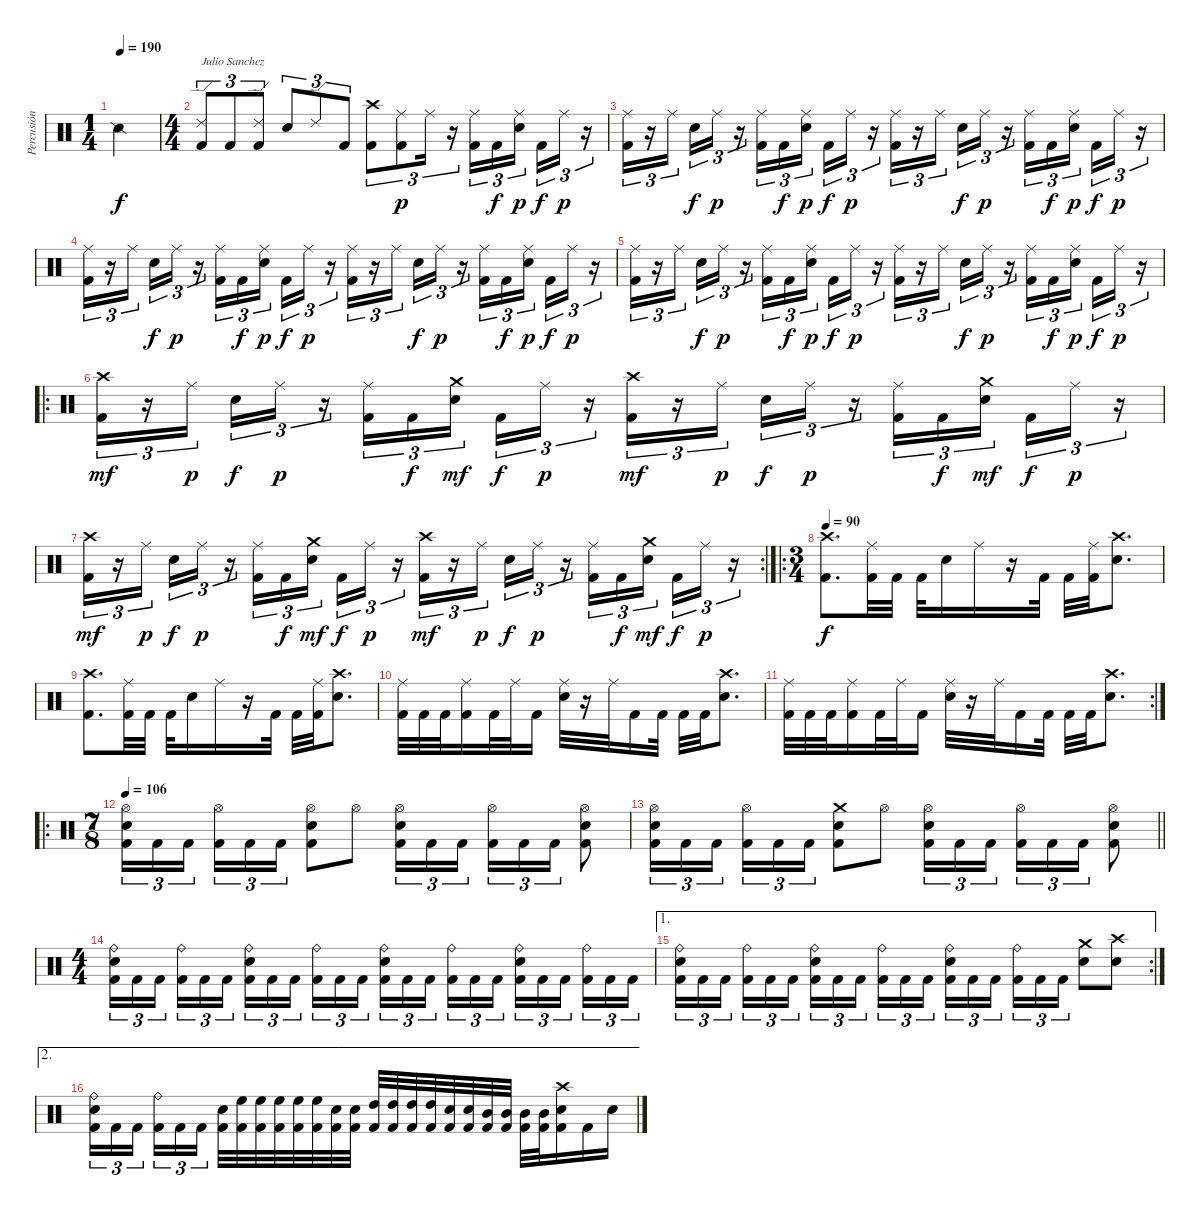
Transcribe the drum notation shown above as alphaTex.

\track ("Percusión" "Percusión") {instrument percussion}
\staff {score}
\articulation defaults
\ts (1 4)
\tempo 190
\tempo 95
\tempo 190
\clef neutral
\ks c "Snare (side stick) 2".4{dy f}
|
\ts (4 4)
("Ride (edge) 2" "Kick (hit) 2").8{tu (3 2) txt "Julio Sanchez"} "Kick (hit) 2".8{tu (3 2)} ("Ride (edge) 2" "Kick (hit) 2").8{tu (3 2)} "Electric Snare (hit)".8{tu (3 2)} "Ride (edge) 2".8{tu (3 2)} "Kick (hit) 2".8{tu (3 2)} ("Kick (hit) 2" "Crash high (hit)").8{tu (3 2)} ("Ride (middle)" "Kick (hit) 2").8{tu (3 2) dy p} "Ride (middle)".16{tu (3 2)} r.16{tu (3 2)} ("Ride (middle)" "Kick (hit) 2").16{tu (3 2)} "Kick (hit) 2".16{tu (3 2) dy f} ("Ride (middle)" "Electric Snare (hit)").16{tu (3 2) dy p beam splitsecondary} "Kick (hit) 2".16{tu (3 2) dy f} "Ride (middle)".16{tu (3 2) dy p} r.16{tu (3 2)} |
("Ride (middle)" "Kick (hit) 2").16{tu (3 2)} r.16{tu (3 2)} "Ride (middle)".16{tu (3 2) beam splitsecondary} "Electric Snare (hit)".16{tu (3 2) dy f} "Ride (middle)".16{tu (3 2) dy p} r.16{tu (3 2)} ("Ride (middle)" "Kick (hit) 2").16{tu (3 2)} "Kick (hit) 2".16{tu (3 2) dy f} ("Ride (middle)" "Electric Snare (hit)").16{tu (3 2) dy p beam splitsecondary} "Kick (hit) 2".16{tu (3 2) dy f} "Ride (middle)".16{tu (3 2) dy p} r.16{tu (3 2)} ("Ride (middle)" "Kick (hit) 2").16{tu (3 2)} r.16{tu (3 2)} "Ride (middle)".16{tu (3 2) beam splitsecondary} "Electric Snare (hit)".16{tu (3 2) dy f} "Ride (middle)".16{tu (3 2) dy p} r.16{tu (3 2)} ("Ride (middle)" "Kick (hit) 2").16{tu (3 2)} "Kick (hit) 2".16{tu (3 2) dy f} ("Ride (middle)" "Electric Snare (hit)").16{tu (3 2) dy p beam splitsecondary} "Kick (hit) 2".16{tu (3 2) dy f} "Ride (middle)".16{tu (3 2) dy p} r.16{tu (3 2)} |
("Ride (middle)" "Kick (hit) 2").16{tu (3 2)} r.16{tu (3 2)} "Ride (middle)".16{tu (3 2) beam splitsecondary} "Electric Snare (hit)".16{tu (3 2) dy f} "Ride (middle)".16{tu (3 2) dy p} r.16{tu (3 2)} ("Ride (middle)" "Kick (hit) 2").16{tu (3 2)} "Kick (hit) 2".16{tu (3 2) dy f} ("Ride (middle)" "Electric Snare (hit)").16{tu (3 2) dy p beam splitsecondary} "Kick (hit) 2".16{tu (3 2) dy f} "Ride (middle)".16{tu (3 2) dy p} r.16{tu (3 2)} ("Ride (middle)" "Kick (hit) 2").16{tu (3 2)} r.16{tu (3 2)} "Ride (middle)".16{tu (3 2) beam splitsecondary} "Electric Snare (hit)".16{tu (3 2) dy f} "Ride (middle)".16{tu (3 2) dy p} r.16{tu (3 2)} ("Ride (middle)" "Kick (hit) 2").16{tu (3 2)} "Kick (hit) 2".16{tu (3 2) dy f} ("Ride (middle)" "Electric Snare (hit)").16{tu (3 2) dy p beam splitsecondary} "Kick (hit) 2".16{tu (3 2) dy f} "Ride (middle)".16{tu (3 2) dy p} r.16{tu (3 2)} |
("Ride (middle)" "Kick (hit) 2").16{tu (3 2)} r.16{tu (3 2)} "Ride (middle)".16{tu (3 2) beam splitsecondary} "Electric Snare (hit)".16{tu (3 2) dy f} "Ride (middle)".16{tu (3 2) dy p} r.16{tu (3 2)} ("Ride (middle)" "Kick (hit) 2").16{tu (3 2)} "Kick (hit) 2".16{tu (3 2) dy f} ("Ride (middle)" "Electric Snare (hit)").16{tu (3 2) dy p beam splitsecondary} "Kick (hit) 2".16{tu (3 2) dy f} "Ride (middle)".16{tu (3 2) dy p} r.16{tu (3 2)} ("Ride (middle)" "Kick (hit) 2").16{tu (3 2)} r.16{tu (3 2)} "Ride (middle)".16{tu (3 2) beam splitsecondary} "Electric Snare (hit)".16{tu (3 2) dy f} "Ride (middle)".16{tu (3 2) dy p} r.16{tu (3 2)} ("Ride (middle)" "Kick (hit) 2").16{tu (3 2)} "Kick (hit) 2".16{tu (3 2) dy f} ("Ride (middle)" "Electric Snare (hit)").16{tu (3 2) dy p beam splitsecondary} "Kick (hit) 2".16{tu (3 2) dy f} "Ride (middle)".16{tu (3 2) dy p} r.16{tu (3 2)} |
\ro
("Kick (hit) 2" "Crash high (hit)").16{tu (3 2) dy mf} r.16{tu (3 2)} "Ride (middle)".16{tu (3 2) dy p beam splitsecondary} "Electric Snare (hit)".16{tu (3 2) dy f} "Ride (middle)".16{tu (3 2) dy p} r.16{tu (3 2)} ("Ride (middle)" "Kick (hit) 2").16{tu (3 2)} "Kick (hit) 2".16{tu (3 2) dy f} ("Electric Snare (hit)" "Crash medium (hit)").16{tu (3 2) dy mf beam splitsecondary} "Kick (hit) 2".16{tu (3 2) dy f} "Ride (middle)".16{tu (3 2) dy p} r.16{tu (3 2)} ("Kick (hit) 2" "Crash high (hit)").16{tu (3 2) dy mf} r.16{tu (3 2)} "Ride (middle)".16{tu (3 2) dy p beam splitsecondary} "Electric Snare (hit)".16{tu (3 2) dy f} "Ride (middle)".16{tu (3 2) dy p} r.16{tu (3 2)} ("Ride (middle)" "Kick (hit) 2").16{tu (3 2)} "Kick (hit) 2".16{tu (3 2) dy f} ("Electric Snare (hit)" "Crash medium (hit)").16{tu (3 2) dy mf beam splitsecondary} "Kick (hit) 2".16{tu (3 2) dy f} "Ride (middle)".16{tu (3 2) dy p} r.16{tu (3 2)} |
\rc 2
("Kick (hit) 2" "Crash high (hit)").16{tu (3 2) dy mf} r.16{tu (3 2)} "Ride (middle)".16{tu (3 2) dy p beam splitsecondary} "Electric Snare (hit)".16{tu (3 2) dy f} "Ride (middle)".16{tu (3 2) dy p} r.16{tu (3 2)} ("Ride (middle)" "Kick (hit) 2").16{tu (3 2)} "Kick (hit) 2".16{tu (3 2) dy f} ("Electric Snare (hit)" "Crash medium (hit)").16{tu (3 2) dy mf beam splitsecondary} "Kick (hit) 2".16{tu (3 2) dy f} "Ride (middle)".16{tu (3 2) dy p} r.16{tu (3 2)} ("Kick (hit) 2" "Crash high (hit)").16{tu (3 2) dy mf} r.16{tu (3 2)} "Ride (middle)".16{tu (3 2) dy p beam splitsecondary} "Electric Snare (hit)".16{tu (3 2) dy f} "Ride (middle)".16{tu (3 2) dy p} r.16{tu (3 2)} ("Ride (middle)" "Kick (hit) 2").16{tu (3 2)} "Kick (hit) 2".16{tu (3 2) dy f} ("Electric Snare (hit)" "Crash medium (hit)").16{tu (3 2) dy mf beam splitsecondary} "Kick (hit) 2".16{tu (3 2) dy f} "Ride (middle)".16{tu (3 2) dy p} r.16{tu (3 2)} |
\ro
\ts (3 4)
\tempo 90
("Kick (hit) 2" "Crash high (hit)").8{d dy f} ("Ride (middle)" "Kick (hit) 2").32 "Kick (hit) 2".32 "Kick (hit) 2".32 "Electric Snare (hit)".16 "Ride (middle)".16 r.16 "Kick (hit) 2".32 "Kick (hit) 2".32 ("Ride (middle)" "Kick (hit) 2").32 ("Electric Snare (hit)" "Crash high (hit)").8{d} |
("Kick (hit) 2" "Crash high (hit)").8{d} ("Ride (middle)" "Kick (hit) 2").32 "Kick (hit) 2".32 "Kick (hit) 2".32 "Electric Snare (hit)".16 "Ride (middle)".16 r.16 "Kick (hit) 2".32 "Kick (hit) 2".32 ("Ride (middle)" "Kick (hit) 2").32 ("Electric Snare (hit)" "Crash high (hit)").8{d} |
("Ride (middle)" "Kick (hit) 2").32 "Kick (hit) 2".32 "Kick (hit) 2".32 ("Ride (middle)" "Kick (hit) 2").16 "Kick (hit) 2".32 "Ride (middle)".32 "Kick (hit) 2".16 ("Ride (middle)" "Electric Snare (hit)").32 r.16 "Ride (middle)".32 "Kick (hit) 2".16 "Kick (hit) 2".32 "Kick (hit) 2".32 "Kick (hit) 2".32 ("Electric Snare (hit)" "Crash high (hit)").8{d} |
\rc 2
("Ride (middle)" "Kick (hit) 2").32 "Kick (hit) 2".32 "Kick (hit) 2".32 ("Ride (middle)" "Kick (hit) 2").16 "Kick (hit) 2".32 "Ride (middle)".32 "Kick (hit) 2".16 ("Ride (middle)" "Electric Snare (hit)").32 r.16 "Ride (middle)".32 "Kick (hit) 2".16 "Kick (hit) 2".32 "Kick (hit) 2".32 "Kick (hit) 2".32 ("Electric Snare (hit)" "Crash high (hit)").8{d} |
\ro
\ts (7 8)
\tempo 106
("Hi-Hat (open)" "Electric Snare (hit)" "Kick (hit) 2").16{tu (3 2)} "Kick (hit) 2".16{tu (3 2)} "Kick (hit) 2".16{tu (3 2)} ("Hi-Hat (open)" "Kick (hit) 2").16{tu (3 2)} "Kick (hit) 2".16{tu (3 2)} "Kick (hit) 2".16{tu (3 2)} ("Hi-Hat (open)" "Electric Snare (hit)" "Kick (hit) 2").8 "Hi-Hat (open)".8 ("Hi-Hat (open)" "Electric Snare (hit)" "Kick (hit) 2").16{tu (3 2)} "Kick (hit) 2".16{tu (3 2)} "Kick (hit) 2".16{tu (3 2)} ("Hi-Hat (open)" "Kick (hit) 2").16{tu (3 2)} "Kick (hit) 2".16{tu (3 2)} "Kick (hit) 2".16{tu (3 2)} ("Hi-Hat (open)" "Electric Snare (hit)" "Kick (hit) 2").8 |
\barLineRight lightlight
("Hi-Hat (open)" "Electric Snare (hit)" "Kick (hit) 2").16{tu (3 2)} "Kick (hit) 2".16{tu (3 2)} "Kick (hit) 2".16{tu (3 2)} ("Hi-Hat (open)" "Kick (hit) 2").16{tu (3 2)} "Kick (hit) 2".16{tu (3 2)} "Kick (hit) 2".16{tu (3 2)} ("Electric Snare (hit)" "Kick (hit) 2" "Crash medium (hit)").8 "Hi-Hat (open)".8 ("Hi-Hat (open)" "Electric Snare (hit)" "Kick (hit) 2").16{tu (3 2)} "Kick (hit) 2".16{tu (3 2)} "Kick (hit) 2".16{tu (3 2)} ("Hi-Hat (open)" "Kick (hit) 2").16{tu (3 2)} "Kick (hit) 2".16{tu (3 2)} "Kick (hit) 2".16{tu (3 2)} ("Hi-Hat (open)" "Electric Snare (hit)" "Kick (hit) 2").8 |
\ts (4 4)
("Ride (bell)" "Electric Snare (hit)" "Kick (hit) 2").16{tu (3 2)} "Kick (hit) 2".16{tu (3 2)} "Kick (hit) 2".16{tu (3 2) beam splitsecondary} ("Ride (bell)" "Kick (hit) 2").16{tu (3 2)} "Kick (hit) 2".16{tu (3 2)} "Kick (hit) 2".16{tu (3 2)} ("Ride (bell)" "Electric Snare (hit)" "Kick (hit) 2").16{tu (3 2)} "Kick (hit) 2".16{tu (3 2)} "Kick (hit) 2".16{tu (3 2) beam splitsecondary} ("Ride (bell)" "Kick (hit) 2").16{tu (3 2)} "Kick (hit) 2".16{tu (3 2)} "Kick (hit) 2".16{tu (3 2)} ("Ride (bell)" "Electric Snare (hit)" "Kick (hit) 2").16{tu (3 2)} "Kick (hit) 2".16{tu (3 2)} "Kick (hit) 2".16{tu (3 2) beam splitsecondary} ("Ride (bell)" "Kick (hit) 2").16{tu (3 2)} "Kick (hit) 2".16{tu (3 2)} "Kick (hit) 2".16{tu (3 2)} ("Ride (bell)" "Electric Snare (hit)" "Kick (hit) 2").16{tu (3 2)} "Kick (hit) 2".16{tu (3 2)} "Kick (hit) 2".16{tu (3 2) beam splitsecondary} ("Ride (bell)" "Kick (hit) 2").16{tu (3 2)} "Kick (hit) 2".16{tu (3 2)} "Kick (hit) 2".16{tu (3 2)} |
\ae 1
\rc 2
("Ride (bell)" "Electric Snare (hit)" "Kick (hit) 2").16{tu (3 2)} "Kick (hit) 2".16{tu (3 2)} "Kick (hit) 2".16{tu (3 2) beam splitsecondary} ("Ride (bell)" "Kick (hit) 2").16{tu (3 2)} "Kick (hit) 2".16{tu (3 2)} "Kick (hit) 2".16{tu (3 2)} ("Ride (bell)" "Electric Snare (hit)" "Kick (hit) 2").16{tu (3 2)} "Kick (hit) 2".16{tu (3 2)} "Kick (hit) 2".16{tu (3 2) beam splitsecondary} ("Ride (bell)" "Kick (hit) 2").16{tu (3 2)} "Kick (hit) 2".16{tu (3 2)} "Kick (hit) 2".16{tu (3 2)} ("Ride (bell)" "Electric Snare (hit)" "Kick (hit) 2").16{tu (3 2)} "Kick (hit) 2".16{tu (3 2)} "Kick (hit) 2".16{tu (3 2) beam splitsecondary} ("Ride (bell)" "Kick (hit) 2").16{tu (3 2)} "Kick (hit) 2".16{tu (3 2)} "Kick (hit) 2".16{tu (3 2)} ("Crash medium (hit)" "Electric Snare (hit)").8 ("Crash high (hit)" "Electric Snare (hit)").8 |
\ae 2
("Ride (bell)" "Electric Snare (hit)" "Kick (hit) 2").16{tu (3 2)} "Kick (hit) 2".16{tu (3 2)} "Kick (hit) 2".16{tu (3 2) beam splitsecondary} ("Ride (bell)" "Kick (hit) 2").16{tu (3 2)} "Kick (hit) 2".16{tu (3 2)} "Kick (hit) 2".16{tu (3 2)} ("Electric Snare (hit)" "Kick (hit) 2").32 ("High Floor Tom (hit)" "Kick (hit) 2").32 ("High Floor Tom (hit)" "Kick (hit) 2").32 ("High Floor Tom (hit)" "Kick (hit) 2").32 ("High Floor Tom (hit)" "Kick (hit) 2").32 ("High Floor Tom (hit)" "Kick (hit) 2").32 ("Electric Snare (hit)" "Kick (hit) 2").32 ("Electric Snare (hit)" "Kick (hit) 2").32 ("High Tom (hit)" "Kick (hit) 2").32 ("High Tom (hit)" "Kick (hit) 2").32 ("High Tom (hit)" "Kick (hit) 2").32 ("High Tom (hit)" "Kick (hit) 2").32 ("Electric Snare (hit)" "Kick (hit) 2").32 ("Electric Snare (hit)" "Kick (hit) 2").32 ("Mid Tom (hit)" "Kick (hit) 2").32 ("Mid Tom (hit)" "Kick (hit) 2").32 ("Mid Tom (hit)" "Kick (hit) 2").32 ("Mid Tom (hit)" "Kick (hit) 2").32 ("Electric Snare (hit)" "Kick (hit) 2" "Crash high (hit)").16 "Kick (hit) 2".16 "Electric Snare (hit)".16
